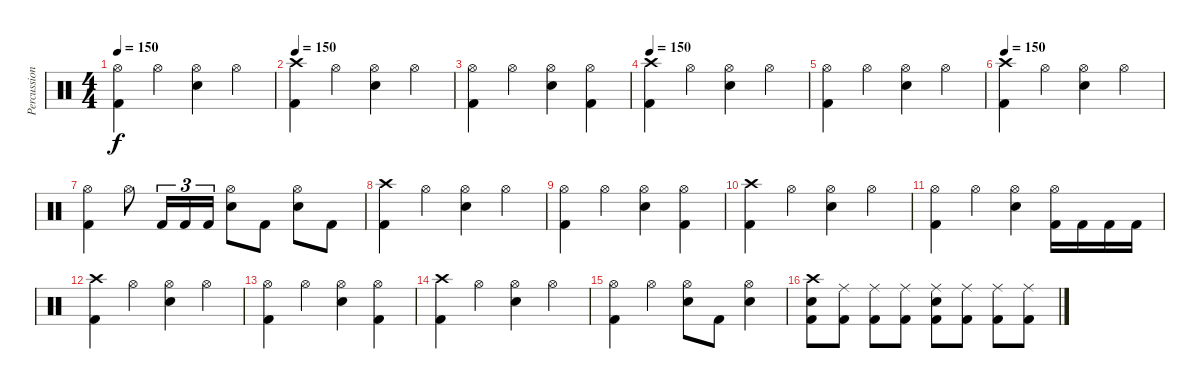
\track ("Percussion" "Percussion") {instrument percussion}
\staff {score}
\articulation defaults
\ts (4 4)
\tempo 150
\clef neutral
\ks c
("Hi-Hat (open)" "Kick (hit) 2").4{dy f} "Hi-Hat (open)".4 ("Hi-Hat (open)" "Snare (hit) 2").4 "Hi-Hat (open)".4 |
\tempo 150
("Crash high (hit)" "Kick (hit) 2").4 "Hi-Hat (open)".4 ("Hi-Hat (open)" "Snare (hit) 2").4 "Hi-Hat (open)".4 |
("Hi-Hat (open)" "Kick (hit) 2").4 "Hi-Hat (open)".4 ("Hi-Hat (open)" "Snare (hit) 2").4 ("Hi-Hat (open)" "Kick (hit) 2").4 |
\tempo 150
("Crash high (hit)" "Kick (hit) 2").4 "Hi-Hat (open)".4 ("Hi-Hat (open)" "Snare (hit) 2").4 "Hi-Hat (open)".4 |
("Hi-Hat (open)" "Kick (hit) 2").4 "Hi-Hat (open)".4 ("Hi-Hat (open)" "Snare (hit) 2").4 "Hi-Hat (open)".4 |
\tempo 150
("Crash high (hit)" "Kick (hit) 2").4 "Hi-Hat (open)".4 ("Hi-Hat (open)" "Snare (hit) 2").4 "Hi-Hat (open)".4 |
("Hi-Hat (open)" "Kick (hit) 2").4 "Hi-Hat (open)".8 "Kick (hit) 2".16{tu (3 2)} "Kick (hit) 2".16{tu (3 2)} "Kick (hit) 2".16{tu (3 2)} ("Hi-Hat (open)" "Snare (hit) 2").8 "Kick (hit) 2".8 ("Hi-Hat (open)" "Snare (hit) 2").8 "Kick (hit) 2".8 |
("Crash high (hit)" "Kick (hit) 2").4 "Hi-Hat (open)".4 ("Hi-Hat (open)" "Snare (hit) 2").4 "Hi-Hat (open)".4 |
("Hi-Hat (open)" "Kick (hit) 2").4 "Hi-Hat (open)".4 ("Hi-Hat (open)" "Snare (hit) 2").4 ("Hi-Hat (open)" "Kick (hit) 2").4 |
("Crash high (hit)" "Kick (hit) 2").4 "Hi-Hat (open)".4 ("Hi-Hat (open)" "Snare (hit) 2").4 "Hi-Hat (open)".4 |
("Hi-Hat (open)" "Kick (hit) 2").4 "Hi-Hat (open)".4 ("Hi-Hat (open)" "Snare (hit) 2").4 ("Hi-Hat (open)" "Kick (hit) 2").16 "Kick (hit) 2".16 "Kick (hit) 2".16 "Kick (hit) 2".16 |
("Crash high (hit)" "Kick (hit) 2").4 "Hi-Hat (open)".4 ("Hi-Hat (open)" "Snare (hit) 2").4 "Hi-Hat (open)".4 |
("Hi-Hat (open)" "Kick (hit) 2").4 "Hi-Hat (open)".4 ("Hi-Hat (open)" "Snare (hit) 2").4 ("Hi-Hat (open)" "Kick (hit) 2").4 |
("Crash high (hit)" "Kick (hit) 2").4 "Hi-Hat (open)".4 ("Hi-Hat (open)" "Snare (hit) 2").4 "Hi-Hat (open)".4 |
("Hi-Hat (open)" "Kick (hit) 2").4 "Hi-Hat (open)".4 ("Hi-Hat (open)" "Snare (hit) 2").8 "Kick (hit) 2".8 ("Hi-Hat (open)" "Snare (hit) 2").4 |
("Crash high (hit)" "Snare (hit) 2" "Kick (hit) 2").8 ("Ride (middle)" "Kick (hit) 2").8 ("Ride (middle)" "Kick (hit) 2").8 ("Ride (middle)" "Kick (hit) 2").8 ("Ride (middle)" "Snare (hit) 2" "Kick (hit) 2").8 ("Ride (middle)" "Kick (hit) 2").8 ("Ride (middle)" "Kick (hit) 2").8 ("Ride (middle)" "Kick (hit) 2").8
